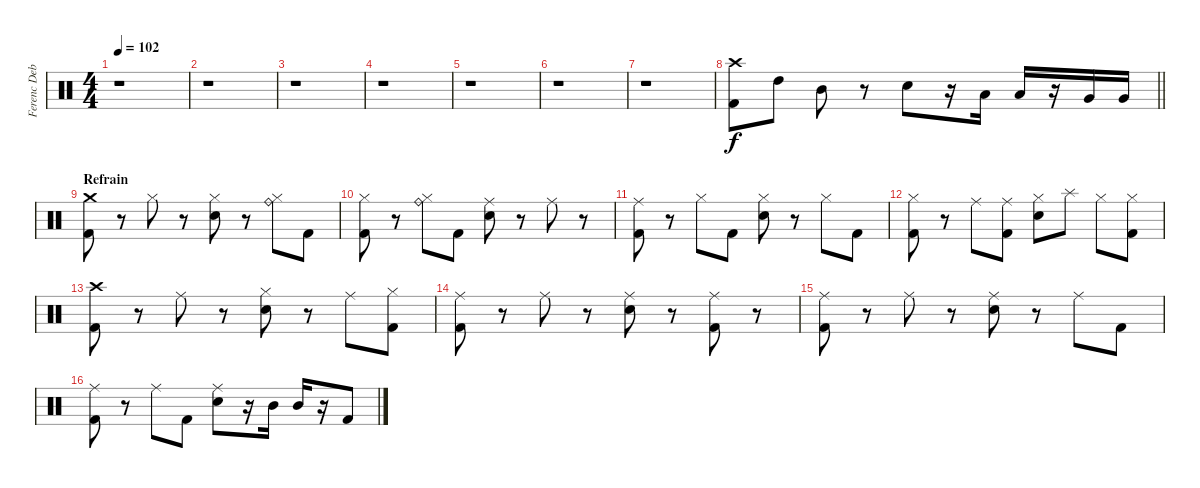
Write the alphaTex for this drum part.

\track ("Ferenc Debreczeni - drums" "Ferenc Deb") {instrument percussion}
\staff {score}
\articulation defaults
\ts (4 4)
\tempo 102
\clef neutral
\ks c
r.1{dy f} |
r.1 |
r.1 |
r.1 |
r.1 |
r.1 |
r.1 |
\barLineRight lightlight
("Crash high (hit)" "Kick (hit) 2").8 "High Tom (hit)".8 "Mid Tom (hit)".8 r.8 "Snare (hit) 2".8 r.16 "Low Tom (hit)".16 "Low Tom (hit)".16 r.16 "Very Low Tom (hit)".16 "Very Low Tom (hit)".16 |
\section ("" "Refrain")
("Kick (hit) 2" "Crash medium (hit)").8 r.8 "Hi-Hat (closed)".8 r.8 ("Snare (hit) 2" "Hi-Hat (closed)").8 r.8 ("Ride (bell)" "Hi-Hat (closed)").8 "Kick (hit) 2".8 |
("Kick (hit) 2" "Hi-Hat (closed)").8 r.8 ("Ride (bell)" "Hi-Hat (closed)").8 "Kick (hit) 2".8 ("Snare (hit) 2" "Ride (middle)").8 r.8 "Ride (middle)".8 r.8 |
("Kick (hit) 2" "Ride (middle)").8 r.8 "Hi-Hat (closed)".8 "Kick (hit) 2".8 ("Snare (hit) 2" "Hi-Hat (closed)").8 r.8 "Hi-Hat (closed)".8 "Kick (hit) 2".8 |
("Kick (hit) 2" "Hi-Hat (closed)").8 r.8 "Ride (middle)".8 ("Kick (hit) 2" "Ride (middle)").8 ("Snare (hit) 2" "Hi-Hat (closed)").8 "Splash (hit)".8 "Hi-Hat (closed)".8 ("Kick (hit) 2" "Hi-Hat (closed)").8 |
("Kick (hit) 2" "Crash high (hit)").8 r.8 "Ride (middle)".8 r.8 ("Snare (hit) 2" "Hi-Hat (closed)").8 r.8 "Ride (middle)".8 ("Kick (hit) 2" "Hi-Hat (closed)").8 |
("Kick (hit) 2" "Ride (middle)").8 r.8 "Ride (middle)".8 r.8 ("Snare (hit) 2" "Ride (middle)").8 r.8 ("Kick (hit) 2" "Ride (middle)").8 r.8 |
("Kick (hit) 2" "Ride (middle)").8 r.8 "Ride (middle)".8 r.8 ("Snare (hit) 2" "Ride (middle)").8 r.8 "Ride (middle)".8 "Kick (hit) 2".8 |
("Kick (hit) 2" "Ride (middle)").8 r.8 "Ride (middle)".8 "Kick (hit) 2".8 ("Snare (hit) 2" "Ride (middle)").8 r.16 "Mid Tom (hit)".16 "Mid Tom (hit)".16 r.16 "Kick (hit) 2".8
